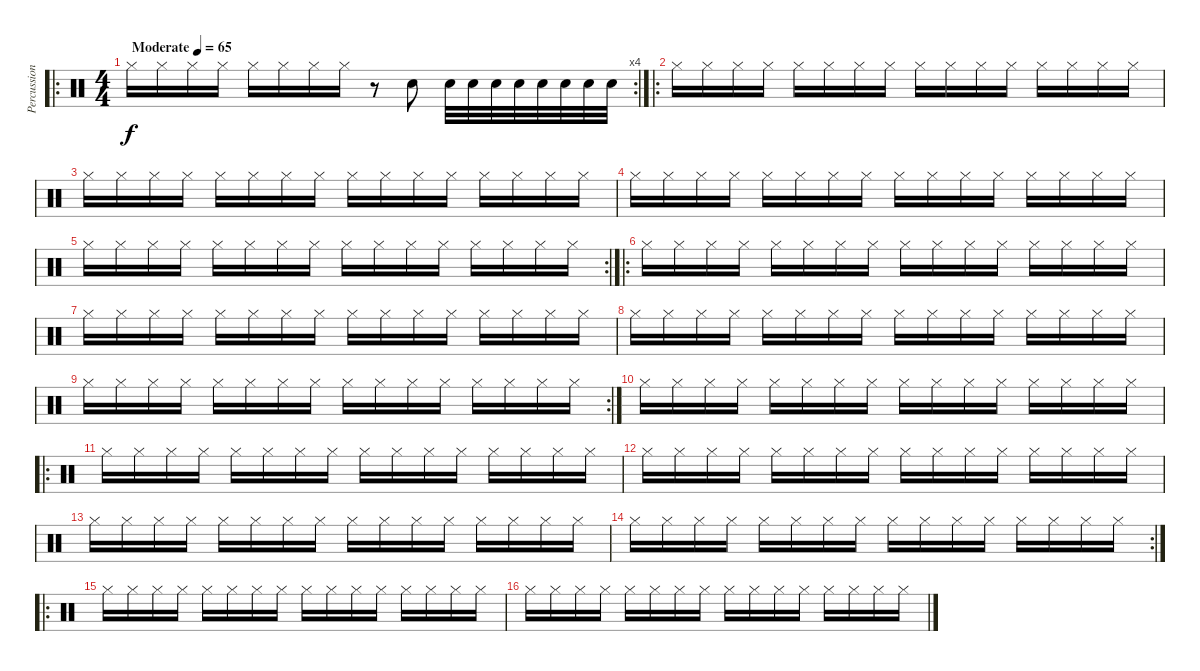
\track ("Percussion" "Percussion") {instrument percussion}
\staff {score}
\articulation defaults
\ro
\rc 4
\ts (4 4)
\tempo (65 "Moderate")
\clef neutral
\ks c "Hi-Hat (closed)".16{dy f} "Hi-Hat (closed)".16 "Hi-Hat (closed)".16 "Hi-Hat (closed)".16 "Hi-Hat (closed)".16 "Hi-Hat (closed)".16 "Hi-Hat (closed)".16 "Hi-Hat (closed)".16
r.8 "Snare (hit) 2".8 "Snare (hit) 2".32 "Snare (hit) 2".32 "Snare (hit) 2".32 "Snare (hit) 2".32 "Snare (hit) 2".32 "Snare (hit) 2".32 "Snare (hit) 2".32 "Snare (hit) 2".32 |
\ro "Hi-Hat (closed)".16 "Hi-Hat (closed)".16 "Hi-Hat (closed)".16 "Hi-Hat (closed)".16 "Hi-Hat (closed)".16 "Hi-Hat (closed)".16 "Hi-Hat (closed)".16 "Hi-Hat (closed)".16 "Hi-Hat (closed)".16 "Hi-Hat (closed)".16 "Hi-Hat (closed)".16 "Hi-Hat (closed)".16 "Hi-Hat (closed)".16 "Hi-Hat (closed)".16 "Hi-Hat (closed)".16 "Hi-Hat (closed)".16
|
"Hi-Hat (closed)".16 "Hi-Hat (closed)".16 "Hi-Hat (closed)".16 "Hi-Hat (closed)".16 "Hi-Hat (closed)".16 "Hi-Hat (closed)".16 "Hi-Hat (closed)".16 "Hi-Hat (closed)".16 "Hi-Hat (closed)".16 "Hi-Hat (closed)".16 "Hi-Hat (closed)".16 "Hi-Hat (closed)".16 "Hi-Hat (closed)".16 "Hi-Hat (closed)".16 "Hi-Hat (closed)".16 "Hi-Hat (closed)".16 |
"Hi-Hat (closed)".16 "Hi-Hat (closed)".16 "Hi-Hat (closed)".16 "Hi-Hat (closed)".16 "Hi-Hat (closed)".16 "Hi-Hat (closed)".16 "Hi-Hat (closed)".16 "Hi-Hat (closed)".16 "Hi-Hat (closed)".16 "Hi-Hat (closed)".16 "Hi-Hat (closed)".16 "Hi-Hat (closed)".16 "Hi-Hat (closed)".16 "Hi-Hat (closed)".16 "Hi-Hat (closed)".16 "Hi-Hat (closed)".16 |
\rc 2 "Hi-Hat (closed)".16 "Hi-Hat (closed)".16 "Hi-Hat (closed)".16 "Hi-Hat (closed)".16 "Hi-Hat (closed)".16 "Hi-Hat (closed)".16 "Hi-Hat (closed)".16 "Hi-Hat (closed)".16 "Hi-Hat (closed)".16 "Hi-Hat (closed)".16 "Hi-Hat (closed)".16 "Hi-Hat (closed)".16 "Hi-Hat (closed)".16 "Hi-Hat (closed)".16 "Hi-Hat (closed)".16 "Hi-Hat (closed)".16
|
\ro "Hi-Hat (closed)".16 "Hi-Hat (closed)".16 "Hi-Hat (closed)".16 "Hi-Hat (closed)".16 "Hi-Hat (closed)".16 "Hi-Hat (closed)".16 "Hi-Hat (closed)".16 "Hi-Hat (closed)".16 "Hi-Hat (closed)".16 "Hi-Hat (closed)".16 "Hi-Hat (closed)".16 "Hi-Hat (closed)".16 "Hi-Hat (closed)".16 "Hi-Hat (closed)".16 "Hi-Hat (closed)".16 "Hi-Hat (closed)".16
|
"Hi-Hat (closed)".16 "Hi-Hat (closed)".16 "Hi-Hat (closed)".16 "Hi-Hat (closed)".16 "Hi-Hat (closed)".16 "Hi-Hat (closed)".16 "Hi-Hat (closed)".16 "Hi-Hat (closed)".16 "Hi-Hat (closed)".16 "Hi-Hat (closed)".16 "Hi-Hat (closed)".16 "Hi-Hat (closed)".16 "Hi-Hat (closed)".16 "Hi-Hat (closed)".16 "Hi-Hat (closed)".16 "Hi-Hat (closed)".16 |
"Hi-Hat (closed)".16 "Hi-Hat (closed)".16 "Hi-Hat (closed)".16 "Hi-Hat (closed)".16 "Hi-Hat (closed)".16 "Hi-Hat (closed)".16 "Hi-Hat (closed)".16 "Hi-Hat (closed)".16 "Hi-Hat (closed)".16 "Hi-Hat (closed)".16 "Hi-Hat (closed)".16 "Hi-Hat (closed)".16 "Hi-Hat (closed)".16 "Hi-Hat (closed)".16 "Hi-Hat (closed)".16 "Hi-Hat (closed)".16 |
\rc 2 "Hi-Hat (closed)".16 "Hi-Hat (closed)".16 "Hi-Hat (closed)".16 "Hi-Hat (closed)".16 "Hi-Hat (closed)".16 "Hi-Hat (closed)".16 "Hi-Hat (closed)".16 "Hi-Hat (closed)".16 "Hi-Hat (closed)".16 "Hi-Hat (closed)".16 "Hi-Hat (closed)".16 "Hi-Hat (closed)".16 "Hi-Hat (closed)".16 "Hi-Hat (closed)".16 "Hi-Hat (closed)".16 "Hi-Hat (closed)".16
|
"Hi-Hat (closed)".16 "Hi-Hat (closed)".16 "Hi-Hat (closed)".16 "Hi-Hat (closed)".16 "Hi-Hat (closed)".16 "Hi-Hat (closed)".16 "Hi-Hat (closed)".16 "Hi-Hat (closed)".16 "Hi-Hat (closed)".16 "Hi-Hat (closed)".16 "Hi-Hat (closed)".16 "Hi-Hat (closed)".16 "Hi-Hat (closed)".16 "Hi-Hat (closed)".16 "Hi-Hat (closed)".16 "Hi-Hat (closed)".16 |
\ro "Hi-Hat (closed)".16 "Hi-Hat (closed)".16 "Hi-Hat (closed)".16 "Hi-Hat (closed)".16 "Hi-Hat (closed)".16 "Hi-Hat (closed)".16 "Hi-Hat (closed)".16 "Hi-Hat (closed)".16 "Hi-Hat (closed)".16 "Hi-Hat (closed)".16 "Hi-Hat (closed)".16 "Hi-Hat (closed)".16 "Hi-Hat (closed)".16 "Hi-Hat (closed)".16 "Hi-Hat (closed)".16 "Hi-Hat (closed)".16
|
"Hi-Hat (closed)".16 "Hi-Hat (closed)".16 "Hi-Hat (closed)".16 "Hi-Hat (closed)".16 "Hi-Hat (closed)".16 "Hi-Hat (closed)".16 "Hi-Hat (closed)".16 "Hi-Hat (closed)".16 "Hi-Hat (closed)".16 "Hi-Hat (closed)".16 "Hi-Hat (closed)".16 "Hi-Hat (closed)".16 "Hi-Hat (closed)".16 "Hi-Hat (closed)".16 "Hi-Hat (closed)".16 "Hi-Hat (closed)".16 |
"Hi-Hat (closed)".16 "Hi-Hat (closed)".16 "Hi-Hat (closed)".16 "Hi-Hat (closed)".16 "Hi-Hat (closed)".16 "Hi-Hat (closed)".16 "Hi-Hat (closed)".16 "Hi-Hat (closed)".16 "Hi-Hat (closed)".16 "Hi-Hat (closed)".16 "Hi-Hat (closed)".16 "Hi-Hat (closed)".16 "Hi-Hat (closed)".16 "Hi-Hat (closed)".16 "Hi-Hat (closed)".16 "Hi-Hat (closed)".16 |
\rc 2 "Hi-Hat (closed)".16 "Hi-Hat (closed)".16 "Hi-Hat (closed)".16 "Hi-Hat (closed)".16 "Hi-Hat (closed)".16 "Hi-Hat (closed)".16 "Hi-Hat (closed)".16 "Hi-Hat (closed)".16 "Hi-Hat (closed)".16 "Hi-Hat (closed)".16 "Hi-Hat (closed)".16 "Hi-Hat (closed)".16 "Hi-Hat (closed)".16 "Hi-Hat (closed)".16 "Hi-Hat (closed)".16 "Hi-Hat (closed)".16
|
\ro "Hi-Hat (closed)".16 "Hi-Hat (closed)".16 "Hi-Hat (closed)".16 "Hi-Hat (closed)".16 "Hi-Hat (closed)".16 "Hi-Hat (closed)".16 "Hi-Hat (closed)".16 "Hi-Hat (closed)".16 "Hi-Hat (closed)".16 "Hi-Hat (closed)".16 "Hi-Hat (closed)".16 "Hi-Hat (closed)".16 "Hi-Hat (closed)".16 "Hi-Hat (closed)".16 "Hi-Hat (closed)".16 "Hi-Hat (closed)".16
|
"Hi-Hat (closed)".16 "Hi-Hat (closed)".16 "Hi-Hat (closed)".16 "Hi-Hat (closed)".16 "Hi-Hat (closed)".16 "Hi-Hat (closed)".16 "Hi-Hat (closed)".16 "Hi-Hat (closed)".16 "Hi-Hat (closed)".16 "Hi-Hat (closed)".16 "Hi-Hat (closed)".16 "Hi-Hat (closed)".16 "Hi-Hat (closed)".16 "Hi-Hat (closed)".16 "Hi-Hat (closed)".16 "Hi-Hat (closed)".16
